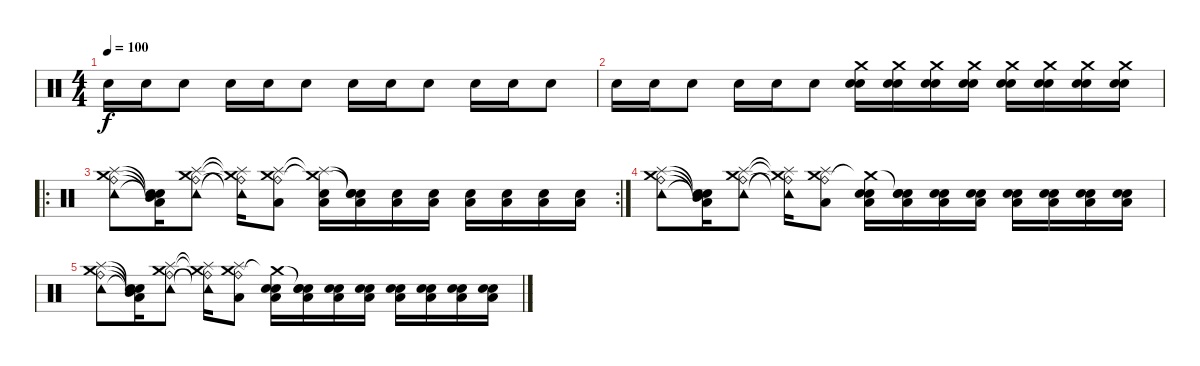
\track "" {instrument percussion}
\staff {score}
\articulation defaults
\ts (4 4)
\tempo 100
\clef neutral
\ks c "Electric Snare (hit)".16{dy f} "Electric Snare (hit)".16 "Snare (hit) 2".8 "Electric Snare (hit)".16 "Electric Snare (hit)".16 "Snare (hit) 2".8 "Electric Snare (hit)".16 "Electric Snare (hit)".16 "Snare (hit) 2".8 "Electric Snare (hit)".16 "Electric Snare (hit)".16 "Snare (hit) 2".8
|
"Electric Snare (hit)".16{volume 12} "Electric Snare (hit)".16 "Snare (hit) 2".8 "Electric Snare (hit)".16 "Electric Snare (hit)".16 "Snare (hit) 2".8 ("Snare (hit) 2" "Electric Snare (hit)" "Crash medium (hit)").16 ("Snare (hit) 2" "Electric Snare (hit)" "Crash medium (hit)").16 ("Snare (hit) 2" "Electric Snare (hit)" "Crash medium (hit)").16 ("Snare (hit) 2" "Electric Snare (hit)" "Crash medium (hit)").16 ("Snare (hit) 2" "Electric Snare (hit)" "Crash medium (hit)").16 ("Snare (hit) 2" "Electric Snare (hit)" "Crash medium (hit)").16 ("Snare (hit) 2" "Electric Snare (hit)" "Crash medium (hit)").16 ("Snare (hit) 2" "Electric Snare (hit)" "Crash medium (hit)").16 |
\ro
\rc 2
("Ride (bell)" "Splash (hit)" "Crash medium (hit)" "Tambourine (hit)").8{volume 15} ("Low Tom (hit)"{t} "Snare (hit)"{t} "Mid Tom (hit)"{t} "Snare (hit)"{t}).16 ("Ride (bell)" "Tambourine (hit)" "Splash (hit)" "Crash medium (hit)").8 ("Tambourine (hit)"{t} "Ride (bell)"{t} "Splash (hit)"{t} "Crash medium (hit)"{t}).16 ("Low Tom (hit)" "Crash medium (hit)" "Splash (hit)" "Ride (bell)").8 ("Low Tom (hit)" "Snare (hit) 2" "Splash (hit)"{t} "Crash medium (hit)"{t}).16 ("Low Tom (hit)" "Snare (hit) 2" "Snare (hit)"{t} "Snare (hit)"{t}).16 ("Low Tom (hit)" "Snare (hit) 2").16 ("Low Tom (hit)" "Snare (hit) 2").16 ("Low Tom (hit)" "Snare (hit) 2").16 ("Low Tom (hit)" "Snare (hit) 2").16 ("Low Tom (hit)" "Snare (hit) 2").16 ("Low Tom (hit)" "Snare (hit) 2").16 |
("Ride (bell)" "Splash (hit)" "Crash medium (hit)" "Tambourine (hit)").8 ("Low Tom (hit)"{t} "Snare (hit)"{t} "Mid Tom (hit)"{t} "Snare (hit)"{t}).16 ("Ride (bell)" "Tambourine (hit)" "Splash (hit)" "Crash medium (hit)").8 ("Tambourine (hit)"{t} "Ride (bell)"{t} "Splash (hit)"{t} "Crash medium (hit)"{t}).16 ("Low Tom (hit)" "Crash medium (hit)" "Splash (hit)" "Ride (bell)").8 ("Low Tom (hit)" "Snare (hit) 2" "Electric Snare (hit)" "Crash medium (hit)"{t}).16 ("Low Tom (hit)" "Snare (hit) 2" "Electric Snare (hit)" "Snare (hit)"{t}).16 ("Low Tom (hit)" "Snare (hit) 2" "Electric Snare (hit)").16 ("Low Tom (hit)" "Snare (hit) 2" "Electric Snare (hit)").16 ("Low Tom (hit)" "Snare (hit) 2" "Electric Snare (hit)").16 ("Low Tom (hit)" "Snare (hit) 2" "Electric Snare (hit)").16 ("Low Tom (hit)" "Snare (hit) 2" "Electric Snare (hit)").16 ("Low Tom (hit)" "Snare (hit) 2" "Electric Snare (hit)").16 |
("Ride (bell)" "Splash (hit)" "Crash medium (hit)" "Tambourine (hit)").8{volume 15} ("Low Tom (hit)"{t} "Snare (hit)"{t} "Mid Tom (hit)"{t} "Snare (hit)"{t}).16 ("Ride (bell)" "Tambourine (hit)" "Splash (hit)" "Crash medium (hit)").8 ("Tambourine (hit)"{t} "Ride (bell)"{t} "Splash (hit)"{t} "Crash medium (hit)"{t}).16 ("Low Tom (hit)" "Crash medium (hit)" "Splash (hit)" "Ride (bell)").8 ("Low Tom (hit)" "Snare (hit) 2" "Electric Snare (hit)" "Crash medium (hit)"{t}).16 ("Low Tom (hit)" "Snare (hit) 2" "Electric Snare (hit)" "Snare (hit)"{t}).16 ("Low Tom (hit)" "Snare (hit) 2" "Electric Snare (hit)").16 ("Low Tom (hit)" "Snare (hit) 2" "Electric Snare (hit)").16 ("Low Tom (hit)" "Snare (hit) 2" "Electric Snare (hit)").16 ("Low Tom (hit)" "Snare (hit) 2" "Electric Snare (hit)").16 ("Low Tom (hit)" "Snare (hit) 2" "Electric Snare (hit)").16 ("Low Tom (hit)" "Snare (hit) 2" "Electric Snare (hit)").16
